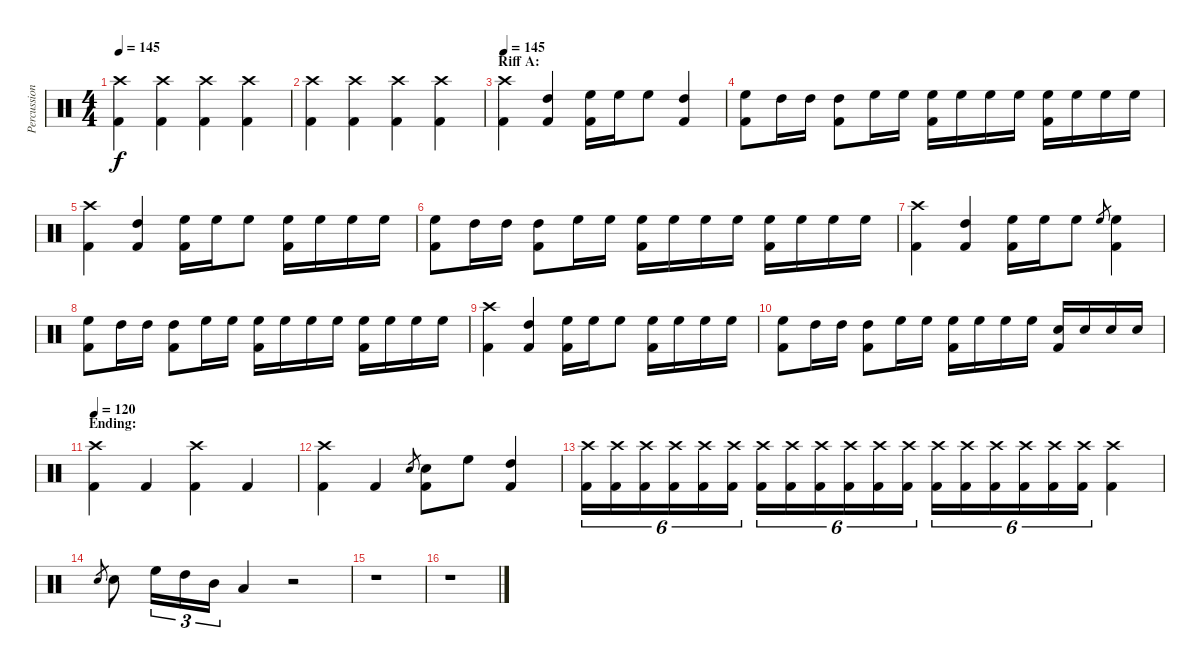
\track ("Percussion" "Percussion") {instrument percussion}
\staff {score}
\articulation defaults
\ts (4 4)
\tempo 145
\clef neutral
\ks c
("Crash high (hit)" "Kick (hit) 2").4{dy f} ("Crash high (hit)" "Kick (hit) 2").4 ("Crash high (hit)" "Kick (hit) 2").4 ("Crash high (hit)" "Kick (hit) 2").4 |
("Crash high (hit)" "Kick (hit) 2").4 ("Crash high (hit)" "Kick (hit) 2").4 ("Crash high (hit)" "Kick (hit) 2").4 ("Crash high (hit)" "Kick (hit) 2").4 |
\section ("" "Riff A:")
\tempo 145
("Crash high (hit)" "Kick (hit) 2").4 ("High Tom (hit)" "Kick (hit) 2").4 ("High Floor Tom (hit)" "Kick (hit) 2").16 "High Floor Tom (hit)".16 "High Floor Tom (hit)".8 ("High Tom (hit)" "Kick (hit) 2").4 |
("High Floor Tom (hit)" "Kick (hit) 2").8 "High Tom (hit)".16 "High Tom (hit)".16 ("High Tom (hit)" "Kick (hit) 2").8 "High Floor Tom (hit)".16 "High Floor Tom (hit)".16 ("High Floor Tom (hit)" "Kick (hit) 2").16 "High Floor Tom (hit)".16 "High Floor Tom (hit)".16 "High Floor Tom (hit)".16 ("High Floor Tom (hit)" "Kick (hit) 2").16 "High Floor Tom (hit)".16 "High Floor Tom (hit)".16 "High Floor Tom (hit)".16 |
("Crash high (hit)" "Kick (hit) 2").4 ("High Tom (hit)" "Kick (hit) 2").4 ("High Floor Tom (hit)" "Kick (hit) 2").16 "High Floor Tom (hit)".16 "High Floor Tom (hit)".8 ("High Floor Tom (hit)" "Kick (hit) 2").16 "High Floor Tom (hit)".16 "High Floor Tom (hit)".16 "High Floor Tom (hit)".16 |
("High Floor Tom (hit)" "Kick (hit) 2").8 "High Tom (hit)".16 "High Tom (hit)".16 ("High Tom (hit)" "Kick (hit) 2").8 "High Floor Tom (hit)".16 "High Floor Tom (hit)".16 ("High Floor Tom (hit)" "Kick (hit) 2").16 "High Floor Tom (hit)".16 "High Floor Tom (hit)".16 "High Floor Tom (hit)".16 ("High Floor Tom (hit)" "Kick (hit) 2").16 "High Floor Tom (hit)".16 "High Floor Tom (hit)".16 "High Floor Tom (hit)".16 |
("Crash high (hit)" "Kick (hit) 2").4 ("High Tom (hit)" "Kick (hit) 2").4 ("High Floor Tom (hit)" "Kick (hit) 2").16 "High Floor Tom (hit)".16 "High Floor Tom (hit)".8 "High Floor Tom (hit)".8{gr} ("High Floor Tom (hit)" "Kick (hit) 2").4 |
("High Floor Tom (hit)" "Kick (hit) 2").8 "High Tom (hit)".16 "High Tom (hit)".16 ("High Tom (hit)" "Kick (hit) 2").8 "High Floor Tom (hit)".16 "High Floor Tom (hit)".16 ("High Floor Tom (hit)" "Kick (hit) 2").16 "High Floor Tom (hit)".16 "High Floor Tom (hit)".16 "High Floor Tom (hit)".16 ("High Floor Tom (hit)" "Kick (hit) 2").16 "High Floor Tom (hit)".16 "High Floor Tom (hit)".16 "High Floor Tom (hit)".16 |
("Crash high (hit)" "Kick (hit) 2").4 ("High Tom (hit)" "Kick (hit) 2").4 ("High Floor Tom (hit)" "Kick (hit) 2").16 "High Floor Tom (hit)".16 "High Floor Tom (hit)".8 ("High Floor Tom (hit)" "Kick (hit) 2").16 "High Floor Tom (hit)".16 "High Floor Tom (hit)".16 "High Floor Tom (hit)".16 |
("High Floor Tom (hit)" "Kick (hit) 2").8 "High Tom (hit)".16 "High Tom (hit)".16 ("High Tom (hit)" "Kick (hit) 2").8 "High Floor Tom (hit)".16 "High Floor Tom (hit)".16 ("High Floor Tom (hit)" "Kick (hit) 2").16 "High Floor Tom (hit)".16 "High Floor Tom (hit)".16 "High Floor Tom (hit)".16 ("Electric Snare (hit)" "Kick (hit) 2").16 "Electric Snare (hit)".16 "Electric Snare (hit)".16 "Electric Snare (hit)".16 |
\section ("" "Ending:")
\tempo 120
("Crash high (hit)" "Kick (hit) 2").4 "Kick (hit) 2".4 ("Crash high (hit)" "Kick (hit) 2").4 "Kick (hit) 2".4 |
("Crash high (hit)" "Kick (hit) 2").4 "Kick (hit) 2".4 "Electric Snare (hit)".8{gr} ("Electric Snare (hit)" "Kick (hit) 2").8 "High Floor Tom (hit)".8 ("High Tom (hit)" "Kick (hit) 2").4 |
("Crash high (hit)" "Kick (hit) 2").16{tu (6 4)} ("Crash high (hit)" "Kick (hit) 2").16{tu (6 4)} ("Crash high (hit)" "Kick (hit) 2").16{tu (6 4)} ("Crash high (hit)" "Kick (hit) 2").16{tu (6 4)} ("Crash high (hit)" "Kick (hit) 2").16{tu (6 4)} ("Crash high (hit)" "Kick (hit) 2").16{tu (6 4)} ("Crash high (hit)" "Kick (hit) 2").16{tu (6 4)} ("Crash high (hit)" "Kick (hit) 2").16{tu (6 4)} ("Crash high (hit)" "Kick (hit) 2").16{tu (6 4)} ("Crash high (hit)" "Kick (hit) 2").16{tu (6 4)} ("Crash high (hit)" "Kick (hit) 2").16{tu (6 4)} ("Crash high (hit)" "Kick (hit) 2").16{tu (6 4)} ("Crash high (hit)" "Kick (hit) 2").16{tu (6 4)} ("Crash high (hit)" "Kick (hit) 2").16{tu (6 4)} ("Crash high (hit)" "Kick (hit) 2").16{tu (6 4)} ("Crash high (hit)" "Kick (hit) 2").16{tu (6 4)} ("Crash high (hit)" "Kick (hit) 2").16{tu (6 4)} ("Crash high (hit)" "Kick (hit) 2").16{tu (6 4)} ("Crash high (hit)" "Kick (hit) 2").4 |
"Electric Snare (hit)".8{gr} "Electric Snare (hit)".8 "High Floor Tom (hit)".16{tu (3 2)} "High Tom (hit)".16{tu (3 2)} "Mid Tom (hit)".16{tu (3 2)} "Low Tom (hit)".4 r.2 |
r.1 |
r.1
